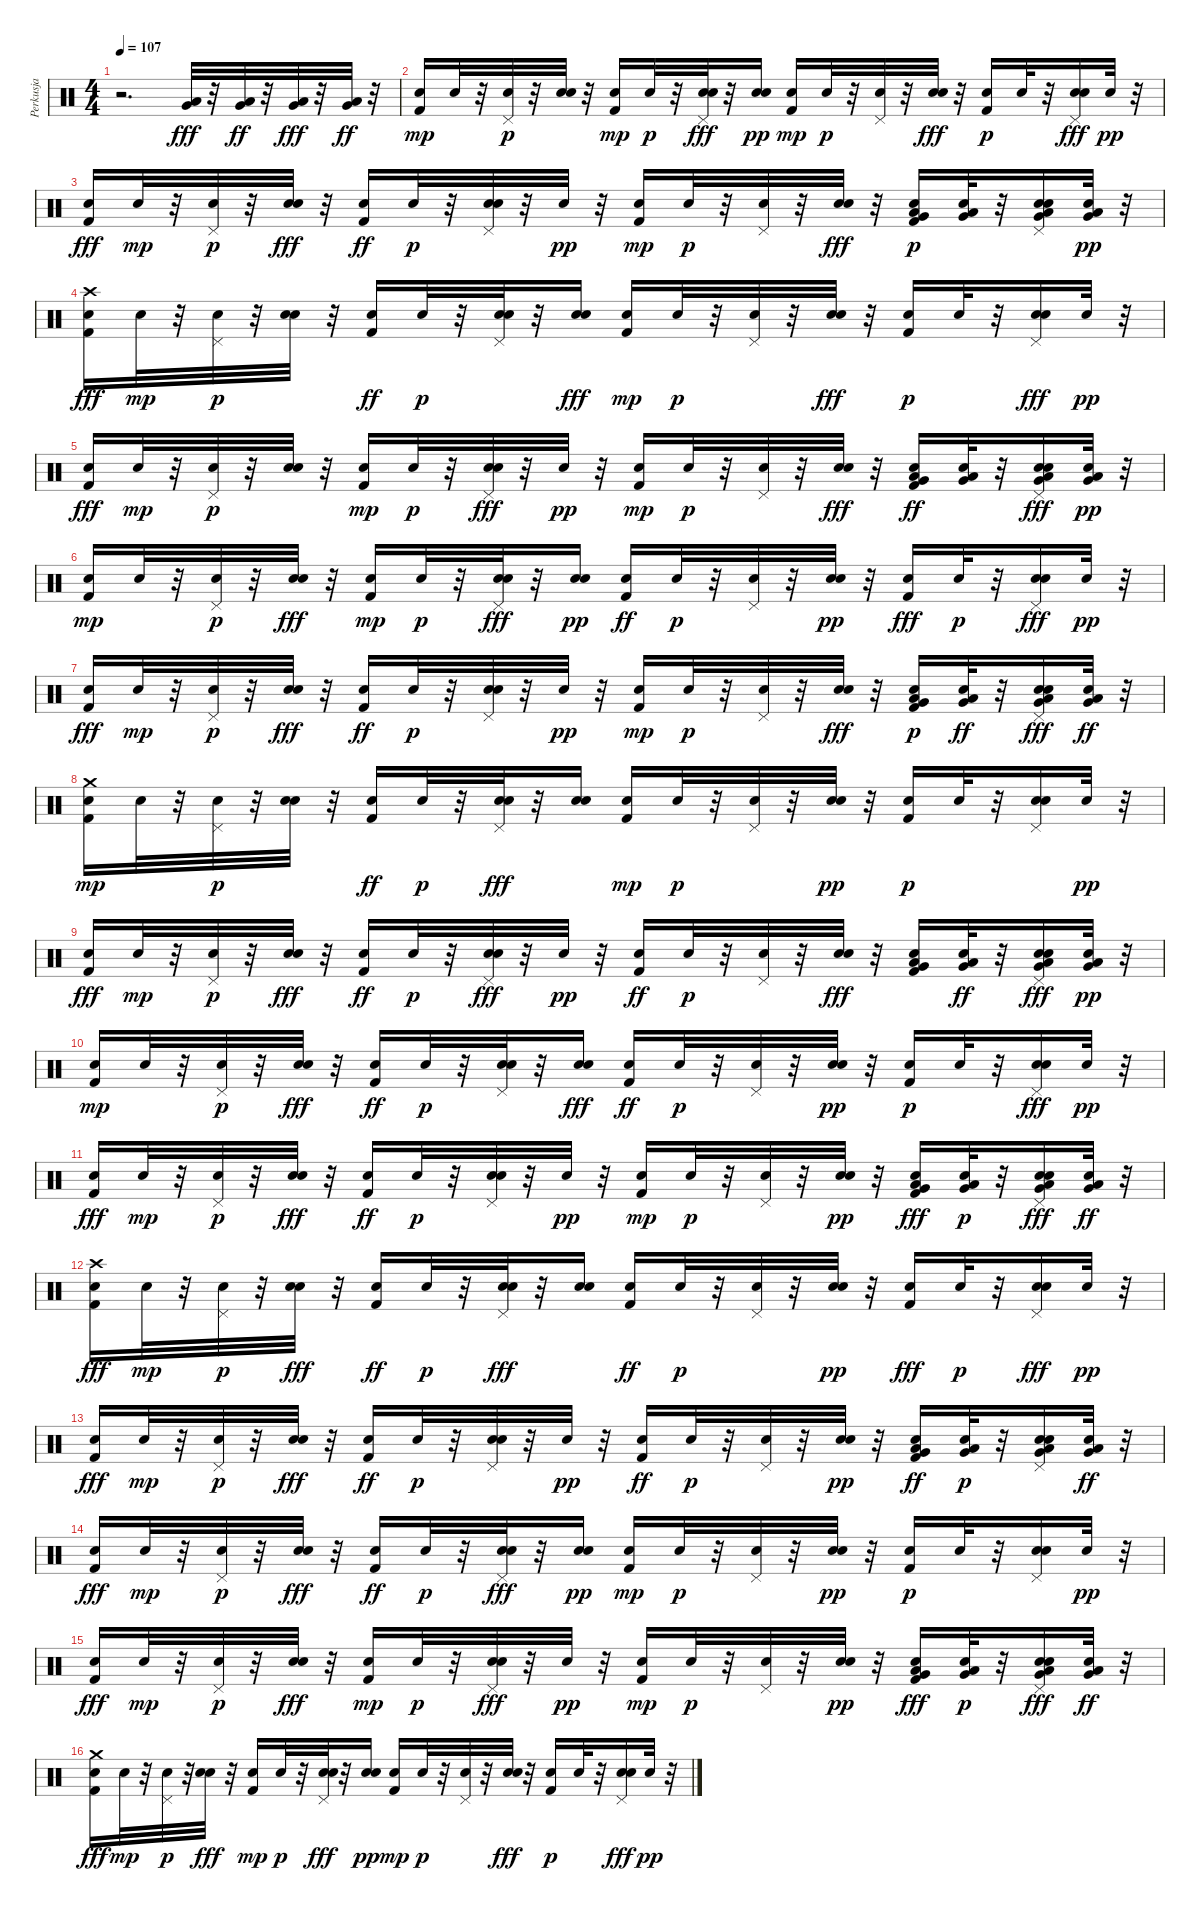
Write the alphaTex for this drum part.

\track ("Perkusja" "Perkusja") {instrument percussion}
\staff {score}
\articulation defaults
\ts (4 4)
\tempo 107
\clef neutral
\ks c
r.2{d dy fff} ("Very Low Tom (hit)" "Low Floor Tom (hit)").32{volume 16 balance 8} r.32 ("Very Low Tom (hit)" "Low Floor Tom (hit)").32{dy ff} r.32 ("Low Floor Tom (hit)" "Very Low Tom (hit)").32{dy fff} r.32 ("Very Low Tom (hit)" "Low Floor Tom (hit)").32{dy ff} r.32 |
("Kick (hit) 2" "Snare (hit) 2").16{dy mp} "Snare (hit) 2".32 r.32 ("Pedal Hi-Hat (hit)" "Snare (hit) 2").32{dy p} r.32 ("Electric Snare (hit)" "Snare (hit) 2").32 r.32 ("Kick (hit) 2" "Snare (hit) 2").16{dy mp} "Snare (hit) 2".32{dy p} r.32 ("Snare (hit) 2" "Pedal Hi-Hat (hit)" "Electric Snare (hit)").32{dy fff} r.32 ("Electric Snare (hit)" "Snare (hit) 2").16{dy pp} ("Kick (hit) 2" "Snare (hit) 2").16{dy mp} "Snare (hit) 2".32{dy p} r.32 ("Pedal Hi-Hat (hit)" "Snare (hit) 2").32 r.32 ("Snare (hit) 2" "Electric Snare (hit)").32{dy fff} r.32 ("Kick (hit) 2" "Snare (hit) 2").16{dy p} "Snare (hit) 2".32 r.32 ("Snare (hit) 2" "Electric Snare (hit)" "Pedal Hi-Hat (hit)").16{dy fff} "Snare (hit) 2".32{dy pp} r.32 |
("Snare (hit) 2" "Kick (hit) 2").16{dy fff} "Snare (hit) 2".32{dy mp} r.32 ("Pedal Hi-Hat (hit)" "Snare (hit) 2").32{dy p} r.32 ("Snare (hit) 2" "Electric Snare (hit)").32{dy fff} r.32 ("Snare (hit) 2" "Kick (hit) 2").16{dy ff} "Snare (hit) 2".32{dy p} r.32 ("Electric Snare (hit)" "Snare (hit) 2" "Pedal Hi-Hat (hit)").32 r.32 "Snare (hit) 2".32{dy pp} r.32 ("Kick (hit) 2" "Snare (hit) 2").16{dy mp} "Snare (hit) 2".32{dy p} r.32 ("Snare (hit) 2" "Pedal Hi-Hat (hit)").32 r.32 ("Snare (hit) 2" "Electric Snare (hit)").32{dy fff} r.32 ("Low Floor Tom (hit)" "Very Low Tom (hit)" "Kick (hit) 2" "Snare (hit) 2").16{dy p} ("Very Low Tom (hit)" "Low Floor Tom (hit)" "Snare (hit) 2").32 r.32 ("Very Low Tom (hit)" "Low Floor Tom (hit)" "Electric Snare (hit)" "Pedal Hi-Hat (hit)" "Snare (hit) 2").16 ("Low Floor Tom (hit)" "Very Low Tom (hit)" "Snare (hit) 2").32{dy pp} r.32 |
("Kick (hit) 2" "Snare (hit) 2" "Crash high (hit)").16{dy fff} "Snare (hit) 2".32{dy mp} r.32 ("Pedal Hi-Hat (hit)" "Snare (hit) 2").32{dy p} r.32 ("Electric Snare (hit)" "Snare (hit) 2").32 r.32 ("Snare (hit) 2" "Kick (hit) 2").16{dy ff} "Snare (hit) 2".32{dy p} r.32 ("Pedal Hi-Hat (hit)" "Electric Snare (hit)" "Snare (hit) 2").32 r.32 ("Snare (hit) 2" "Electric Snare (hit)").16{dy fff} ("Kick (hit) 2" "Snare (hit) 2").16{dy mp} "Snare (hit) 2".32{dy p} r.32 ("Snare (hit) 2" "Pedal Hi-Hat (hit)").32 r.32 ("Snare (hit) 2" "Electric Snare (hit)").32{dy fff} r.32 ("Kick (hit) 2" "Snare (hit) 2").16{dy p} "Snare (hit) 2".32 r.32 ("Snare (hit) 2" "Pedal Hi-Hat (hit)" "Electric Snare (hit)").16{dy fff} "Snare (hit) 2".32{dy pp} r.32 |
("Snare (hit) 2" "Kick (hit) 2").16{dy fff} "Snare (hit) 2".32{dy mp} r.32 ("Pedal Hi-Hat (hit)" "Snare (hit) 2").32{dy p} r.32 ("Electric Snare (hit)" "Snare (hit) 2").32 r.32 ("Kick (hit) 2" "Snare (hit) 2").16{dy mp} "Snare (hit) 2".32{dy p} r.32 ("Pedal Hi-Hat (hit)" "Snare (hit) 2" "Electric Snare (hit)").32{dy fff} r.32 "Snare (hit) 2".32{dy pp} r.32 ("Kick (hit) 2" "Snare (hit) 2").16{dy mp} "Snare (hit) 2".32{dy p} r.32 ("Snare (hit) 2" "Pedal Hi-Hat (hit)").32 r.32 ("Snare (hit) 2" "Electric Snare (hit)").32{dy fff} r.32 ("Kick (hit) 2" "Snare (hit) 2" "Low Floor Tom (hit)" "Very Low Tom (hit)").16{dy ff} ("Very Low Tom (hit)" "Snare (hit) 2" "Low Floor Tom (hit)").32 r.32 ("Pedal Hi-Hat (hit)" "Snare (hit) 2" "Electric Snare (hit)" "Low Floor Tom (hit)" "Very Low Tom (hit)").16{dy fff} ("Low Floor Tom (hit)" "Very Low Tom (hit)" "Snare (hit) 2").32{dy pp} r.32 |
("Kick (hit) 2" "Snare (hit) 2").16{dy mp} "Snare (hit) 2".32 r.32 ("Pedal Hi-Hat (hit)" "Snare (hit) 2").32{dy p} r.32 ("Snare (hit) 2" "Electric Snare (hit)").32{dy fff} r.32 ("Kick (hit) 2" "Snare (hit) 2").16{dy mp} "Snare (hit) 2".32{dy p} r.32 ("Pedal Hi-Hat (hit)" "Snare (hit) 2" "Electric Snare (hit)").32{dy fff} r.32 ("Electric Snare (hit)" "Snare (hit) 2").16{dy pp} ("Snare (hit) 2" "Kick (hit) 2").16{dy ff} "Snare (hit) 2".32{dy p} r.32 ("Snare (hit) 2" "Pedal Hi-Hat (hit)").32 r.32 ("Electric Snare (hit)" "Snare (hit) 2").32{dy pp} r.32 ("Snare (hit) 2" "Kick (hit) 2").16{dy fff} "Snare (hit) 2".32{dy p} r.32 ("Snare (hit) 2" "Electric Snare (hit)" "Pedal Hi-Hat (hit)").16{dy fff} "Snare (hit) 2".32{dy pp} r.32 |
("Snare (hit) 2" "Kick (hit) 2").16{dy fff} "Snare (hit) 2".32{dy mp} r.32 ("Pedal Hi-Hat (hit)" "Snare (hit) 2").32{dy p} r.32 ("Snare (hit) 2" "Electric Snare (hit)").32{dy fff} r.32 ("Snare (hit) 2" "Kick (hit) 2").16{dy ff} "Snare (hit) 2".32{dy p} r.32 ("Pedal Hi-Hat (hit)" "Electric Snare (hit)" "Snare (hit) 2").32 r.32 "Snare (hit) 2".32{dy pp} r.32 ("Kick (hit) 2" "Snare (hit) 2").16{dy mp} "Snare (hit) 2".32{dy p} r.32 ("Snare (hit) 2" "Pedal Hi-Hat (hit)").32 r.32 ("Snare (hit) 2" "Electric Snare (hit)").32{dy fff} r.32 ("Kick (hit) 2" "Very Low Tom (hit)" "Low Floor Tom (hit)" "Snare (hit) 2").16{dy p} ("Very Low Tom (hit)" "Snare (hit) 2" "Low Floor Tom (hit)").32{dy ff} r.32 ("Snare (hit) 2" "Very Low Tom (hit)" "Electric Snare (hit)" "Pedal Hi-Hat (hit)" "Low Floor Tom (hit)").16{dy fff} ("Very Low Tom (hit)" "Snare (hit) 2" "Low Floor Tom (hit)").32{dy ff} r.32 |
("Kick (hit) 2" "Crash medium (hit)" "Snare (hit) 2").16{dy mp} "Snare (hit) 2".32 r.32 ("Pedal Hi-Hat (hit)" "Snare (hit) 2").32{dy p} r.32 ("Electric Snare (hit)" "Snare (hit) 2").32 r.32 ("Snare (hit) 2" "Kick (hit) 2").16{dy ff} "Snare (hit) 2".32{dy p} r.32 ("Snare (hit) 2" "Electric Snare (hit)" "Pedal Hi-Hat (hit)").32{dy fff} r.32 ("Snare (hit) 2" "Electric Snare (hit)").16 ("Kick (hit) 2" "Snare (hit) 2").16{dy mp} "Snare (hit) 2".32{dy p} r.32 ("Pedal Hi-Hat (hit)" "Snare (hit) 2").32 r.32 ("Electric Snare (hit)" "Snare (hit) 2").32{dy pp} r.32 ("Kick (hit) 2" "Snare (hit) 2").16{dy p} "Snare (hit) 2".32 r.32 ("Pedal Hi-Hat (hit)" "Electric Snare (hit)" "Snare (hit) 2").16 "Snare (hit) 2".32{dy pp} r.32 |
("Snare (hit) 2" "Kick (hit) 2").16{dy fff} "Snare (hit) 2".32{dy mp} r.32 ("Pedal Hi-Hat (hit)" "Snare (hit) 2").32{dy p} r.32 ("Snare (hit) 2" "Electric Snare (hit)").32{dy fff} r.32 ("Snare (hit) 2" "Kick (hit) 2").16{dy ff} "Snare (hit) 2".32{dy p} r.32 ("Snare (hit) 2" "Pedal Hi-Hat (hit)" "Electric Snare (hit)").32{dy fff} r.32 "Snare (hit) 2".32{dy pp} r.32 ("Snare (hit) 2" "Kick (hit) 2").16{dy ff} "Snare (hit) 2".32{dy p} r.32 ("Pedal Hi-Hat (hit)" "Snare (hit) 2").32 r.32 ("Snare (hit) 2" "Electric Snare (hit)").32{dy fff} r.32 ("Low Floor Tom (hit)" "Snare (hit) 2" "Very Low Tom (hit)" "Kick (hit) 2").16 ("Snare (hit) 2" "Very Low Tom (hit)" "Low Floor Tom (hit)").32{dy ff} r.32 ("Low Floor Tom (hit)" "Pedal Hi-Hat (hit)" "Snare (hit) 2" "Very Low Tom (hit)" "Electric Snare (hit)").16{dy fff} ("Low Floor Tom (hit)" "Very Low Tom (hit)" "Snare (hit) 2").32{dy pp} r.32 |
("Kick (hit) 2" "Snare (hit) 2").16{dy mp} "Snare (hit) 2".32 r.32 ("Snare (hit) 2" "Pedal Hi-Hat (hit)").32{dy p} r.32 ("Snare (hit) 2" "Electric Snare (hit)").32{dy fff} r.32 ("Snare (hit) 2" "Kick (hit) 2").16{dy ff} "Snare (hit) 2".32{dy p} r.32 ("Pedal Hi-Hat (hit)" "Electric Snare (hit)" "Snare (hit) 2").32 r.32 ("Snare (hit) 2" "Electric Snare (hit)").16{dy fff} ("Snare (hit) 2" "Kick (hit) 2").16{dy ff} "Snare (hit) 2".32{dy p} r.32 ("Pedal Hi-Hat (hit)" "Snare (hit) 2").32 r.32 ("Electric Snare (hit)" "Snare (hit) 2").32{dy pp} r.32 ("Kick (hit) 2" "Snare (hit) 2").16{dy p} "Snare (hit) 2".32 r.32 ("Pedal Hi-Hat (hit)" "Snare (hit) 2" "Electric Snare (hit)").16{dy fff} "Snare (hit) 2".32{dy pp} r.32 |
("Snare (hit) 2" "Kick (hit) 2").16{dy fff} "Snare (hit) 2".32{dy mp} r.32 ("Pedal Hi-Hat (hit)" "Snare (hit) 2").32{dy p} r.32 ("Snare (hit) 2" "Electric Snare (hit)").32{dy fff} r.32 ("Snare (hit) 2" "Kick (hit) 2").16{dy ff} "Snare (hit) 2".32{dy p} r.32 ("Electric Snare (hit)" "Pedal Hi-Hat (hit)" "Snare (hit) 2").32 r.32 "Snare (hit) 2".32{dy pp} r.32 ("Kick (hit) 2" "Snare (hit) 2").16{dy mp} "Snare (hit) 2".32{dy p} r.32 ("Pedal Hi-Hat (hit)" "Snare (hit) 2").32 r.32 ("Electric Snare (hit)" "Snare (hit) 2").32{dy pp} r.32 ("Snare (hit) 2" "Low Floor Tom (hit)" "Very Low Tom (hit)" "Kick (hit) 2").16{dy fff} ("Very Low Tom (hit)" "Low Floor Tom (hit)" "Snare (hit) 2").32{dy p} r.32 ("Low Floor Tom (hit)" "Snare (hit) 2" "Very Low Tom (hit)" "Electric Snare (hit)" "Pedal Hi-Hat (hit)").16{dy fff} ("Snare (hit) 2" "Low Floor Tom (hit)" "Very Low Tom (hit)").32{dy ff} r.32 |
("Crash high (hit)" "Snare (hit) 2" "Kick (hit) 2").16{dy fff} "Snare (hit) 2".32{dy mp} r.32 ("Snare (hit) 2" "Pedal Hi-Hat (hit)").32{dy p} r.32 ("Snare (hit) 2" "Electric Snare (hit)").32{dy fff} r.32 ("Snare (hit) 2" "Kick (hit) 2").16{dy ff} "Snare (hit) 2".32{dy p} r.32 ("Snare (hit) 2" "Pedal Hi-Hat (hit)" "Electric Snare (hit)").32{dy fff} r.32 ("Snare (hit) 2" "Electric Snare (hit)").16 ("Snare (hit) 2" "Kick (hit) 2").16{dy ff} "Snare (hit) 2".32{dy p} r.32 ("Pedal Hi-Hat (hit)" "Snare (hit) 2").32 r.32 ("Electric Snare (hit)" "Snare (hit) 2").32{dy pp} r.32 ("Snare (hit) 2" "Kick (hit) 2").16{dy fff} "Snare (hit) 2".32{dy p} r.32 ("Snare (hit) 2" "Electric Snare (hit)" "Pedal Hi-Hat (hit)").16{dy fff} "Snare (hit) 2".32{dy pp} r.32 |
("Snare (hit) 2" "Kick (hit) 2").16{dy fff} "Snare (hit) 2".32{dy mp} r.32 ("Snare (hit) 2" "Pedal Hi-Hat (hit)").32{dy p} r.32 ("Snare (hit) 2" "Electric Snare (hit)").32{dy fff} r.32 ("Snare (hit) 2" "Kick (hit) 2").16{dy ff} "Snare (hit) 2".32{dy p} r.32 ("Electric Snare (hit)" "Snare (hit) 2" "Pedal Hi-Hat (hit)").32 r.32 "Snare (hit) 2".32{dy pp} r.32 ("Snare (hit) 2" "Kick (hit) 2").16{dy ff} "Snare (hit) 2".32{dy p} r.32 ("Snare (hit) 2" "Pedal Hi-Hat (hit)").32 r.32 ("Electric Snare (hit)" "Snare (hit) 2").32{dy pp} r.32 ("Snare (hit) 2" "Low Floor Tom (hit)" "Kick (hit) 2" "Very Low Tom (hit)").16{dy ff} ("Very Low Tom (hit)" "Low Floor Tom (hit)" "Snare (hit) 2").32{dy p} r.32 ("Pedal Hi-Hat (hit)" "Low Floor Tom (hit)" "Very Low Tom (hit)" "Electric Snare (hit)" "Snare (hit) 2").16 ("Snare (hit) 2" "Very Low Tom (hit)" "Low Floor Tom (hit)").32{dy ff} r.32 |
("Snare (hit) 2" "Kick (hit) 2").16{dy fff} "Snare (hit) 2".32{dy mp} r.32 ("Pedal Hi-Hat (hit)" "Snare (hit) 2").32{dy p} r.32 ("Snare (hit) 2" "Electric Snare (hit)").32{dy fff} r.32 ("Snare (hit) 2" "Kick (hit) 2").16{dy ff} "Snare (hit) 2".32{dy p} r.32 ("Snare (hit) 2" "Electric Snare (hit)" "Pedal Hi-Hat (hit)").32{dy fff} r.32 ("Electric Snare (hit)" "Snare (hit) 2").16{dy pp} ("Kick (hit) 2" "Snare (hit) 2").16{dy mp} "Snare (hit) 2".32{dy p} r.32 ("Pedal Hi-Hat (hit)" "Snare (hit) 2").32 r.32 ("Electric Snare (hit)" "Snare (hit) 2").32{dy pp} r.32 ("Kick (hit) 2" "Snare (hit) 2").16{dy p} "Snare (hit) 2".32 r.32 ("Electric Snare (hit)" "Pedal Hi-Hat (hit)" "Snare (hit) 2").16 "Snare (hit) 2".32{dy pp} r.32 |
("Snare (hit) 2" "Kick (hit) 2").16{dy fff} "Snare (hit) 2".32{dy mp} r.32 ("Snare (hit) 2" "Pedal Hi-Hat (hit)").32{dy p} r.32 ("Snare (hit) 2" "Electric Snare (hit)").32{dy fff} r.32 ("Kick (hit) 2" "Snare (hit) 2").16{dy mp} "Snare (hit) 2".32{dy p} r.32 ("Snare (hit) 2" "Electric Snare (hit)" "Pedal Hi-Hat (hit)").32{dy fff} r.32 "Snare (hit) 2".32{dy pp} r.32 ("Kick (hit) 2" "Snare (hit) 2").16{dy mp} "Snare (hit) 2".32{dy p} r.32 ("Snare (hit) 2" "Pedal Hi-Hat (hit)").32 r.32 ("Electric Snare (hit)" "Snare (hit) 2").32{dy pp} r.32 ("Kick (hit) 2" "Very Low Tom (hit)" "Snare (hit) 2" "Low Floor Tom (hit)").16{dy fff} ("Very Low Tom (hit)" "Low Floor Tom (hit)" "Snare (hit) 2").32{dy p} r.32 ("Electric Snare (hit)" "Low Floor Tom (hit)" "Pedal Hi-Hat (hit)" "Snare (hit) 2" "Very Low Tom (hit)").16{dy fff} ("Very Low Tom (hit)" "Snare (hit) 2" "Low Floor Tom (hit)").32{dy ff} r.32 |
("Snare (hit) 2" "Kick (hit) 2" "Crash medium (hit)").16{dy fff} "Snare (hit) 2".32{dy mp} r.32 ("Pedal Hi-Hat (hit)" "Snare (hit) 2").32{dy p} r.32 ("Snare (hit) 2" "Electric Snare (hit)").32{dy fff} r.32 ("Kick (hit) 2" "Snare (hit) 2").16{dy mp} "Snare (hit) 2".32{dy p} r.32 ("Pedal Hi-Hat (hit)" "Snare (hit) 2" "Electric Snare (hit)").32{dy fff} r.32 ("Electric Snare (hit)" "Snare (hit) 2").16{dy pp} ("Kick (hit) 2" "Snare (hit) 2").16{dy mp} "Snare (hit) 2".32{dy p} r.32 ("Pedal Hi-Hat (hit)" "Snare (hit) 2").32 r.32 ("Snare (hit) 2" "Electric Snare (hit)").32{dy fff} r.32 ("Kick (hit) 2" "Snare (hit) 2").16{dy p} "Snare (hit) 2".32 r.32 ("Snare (hit) 2" "Electric Snare (hit)" "Pedal Hi-Hat (hit)").16{dy fff} "Snare (hit) 2".32{dy pp} r.32
